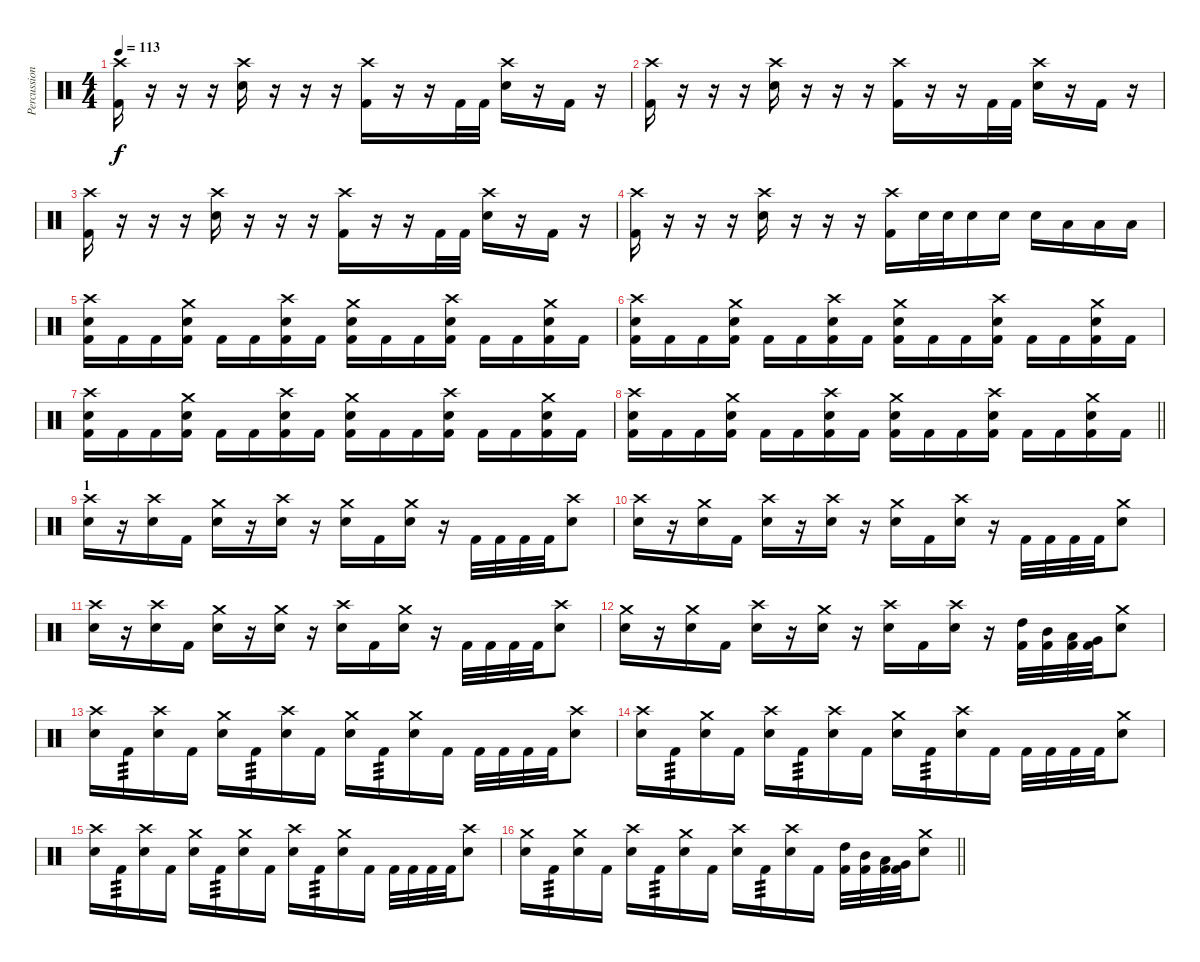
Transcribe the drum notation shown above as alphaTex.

\track ("Percussion" "Percussion") {instrument percussion}
\staff {score}
\articulation defaults
\ts (4 4)
\tempo 113
\clef neutral
\ks c
("Crash high (hit)" "Kick (hit) 2").16{dy f} r.16 r.16 r.16 ("Crash high (hit)" "Electric Snare (hit)").16 r.16 r.16 r.16 ("Crash high (hit)" "Kick (hit) 2").16 r.16 r.16 "Kick (hit) 2".32 "Kick (hit) 2".32 ("Crash high (hit)" "Electric Snare (hit)").16 r.16 "Kick (hit) 2".16 r.16 |
("Crash high (hit)" "Kick (hit) 2").16 r.16 r.16 r.16 ("Crash high (hit)" "Electric Snare (hit)").16 r.16 r.16 r.16 ("Crash high (hit)" "Kick (hit) 2").16 r.16 r.16 "Kick (hit) 2".32 "Kick (hit) 2".32 ("Crash high (hit)" "Electric Snare (hit)").16 r.16 "Kick (hit) 2".16 r.16 |
("Crash high (hit)" "Kick (hit) 2").16 r.16 r.16 r.16 ("Crash high (hit)" "Electric Snare (hit)").16 r.16 r.16 r.16 ("Crash high (hit)" "Kick (hit) 2").16 r.16 r.16 "Kick (hit) 2".32 "Kick (hit) 2".32 ("Crash high (hit)" "Electric Snare (hit)").16 r.16 "Kick (hit) 2".16 r.16 |
("Crash high (hit)" "Kick (hit) 2").16 r.16 r.16 r.16 ("Crash high (hit)" "Electric Snare (hit)").16 r.16 r.16 r.16 ("Crash high (hit)" "Kick (hit) 2").16 "Electric Snare (hit)".32 "Electric Snare (hit)".32 "Electric Snare (hit)".16 "Electric Snare (hit)".16 "Electric Snare (hit)".16 "Low Tom (hit)".16 "Low Tom (hit)".16 "Low Tom (hit)".16 |
("Crash high (hit)" "Electric Snare (hit)" "Kick (hit) 2").16 "Kick (hit) 2".16 "Kick (hit) 2".16 ("Crash medium (hit)" "Electric Snare (hit)" "Kick (hit) 2").16 "Kick (hit) 2".16 "Kick (hit) 2".16 ("Crash high (hit)" "Electric Snare (hit)" "Kick (hit) 2").16 "Kick (hit) 2".16 ("Crash medium (hit)" "Electric Snare (hit)" "Kick (hit) 2").16 "Kick (hit) 2".16 "Kick (hit) 2".16 ("Crash high (hit)" "Electric Snare (hit)" "Kick (hit) 2").16 "Kick (hit) 2".16 "Kick (hit) 2".16 ("Crash medium (hit)" "Electric Snare (hit)" "Kick (hit) 2").16 "Kick (hit) 2".16 |
("Crash high (hit)" "Electric Snare (hit)" "Kick (hit) 2").16 "Kick (hit) 2".16 "Kick (hit) 2".16 ("Crash medium (hit)" "Electric Snare (hit)" "Kick (hit) 2").16 "Kick (hit) 2".16 "Kick (hit) 2".16 ("Crash high (hit)" "Electric Snare (hit)" "Kick (hit) 2").16 "Kick (hit) 2".16 ("Crash medium (hit)" "Electric Snare (hit)" "Kick (hit) 2").16 "Kick (hit) 2".16 "Kick (hit) 2".16 ("Crash high (hit)" "Electric Snare (hit)" "Kick (hit) 2").16 "Kick (hit) 2".16 "Kick (hit) 2".16 ("Crash medium (hit)" "Electric Snare (hit)" "Kick (hit) 2").16 "Kick (hit) 2".16 |
("Crash high (hit)" "Electric Snare (hit)" "Kick (hit) 2").16 "Kick (hit) 2".16 "Kick (hit) 2".16 ("Crash medium (hit)" "Electric Snare (hit)" "Kick (hit) 2").16 "Kick (hit) 2".16 "Kick (hit) 2".16 ("Crash high (hit)" "Electric Snare (hit)" "Kick (hit) 2").16 "Kick (hit) 2".16 ("Crash medium (hit)" "Electric Snare (hit)" "Kick (hit) 2").16 "Kick (hit) 2".16 "Kick (hit) 2".16 ("Crash high (hit)" "Electric Snare (hit)" "Kick (hit) 2").16 "Kick (hit) 2".16 "Kick (hit) 2".16 ("Crash medium (hit)" "Electric Snare (hit)" "Kick (hit) 2").16 "Kick (hit) 2".16 |
\barLineRight lightlight
("Crash high (hit)" "Electric Snare (hit)" "Kick (hit) 2").16 "Kick (hit) 2".16 "Kick (hit) 2".16 ("Crash medium (hit)" "Electric Snare (hit)" "Kick (hit) 2").16 "Kick (hit) 2".16 "Kick (hit) 2".16 ("Crash high (hit)" "Electric Snare (hit)" "Kick (hit) 2").16 "Kick (hit) 2".16 ("Crash medium (hit)" "Electric Snare (hit)" "Kick (hit) 2").16 "Kick (hit) 2".16 "Kick (hit) 2".16 ("Crash high (hit)" "Electric Snare (hit)" "Kick (hit) 2").16 "Kick (hit) 2".16 "Kick (hit) 2".16 ("Crash medium (hit)" "Electric Snare (hit)" "Kick (hit) 2").16 "Kick (hit) 2".16 |
\section ("" "1")
("Crash high (hit)" "Electric Snare (hit)").16 r.16 ("Crash high (hit)" "Electric Snare (hit)").16 "Kick (hit) 2".16 ("Crash medium (hit)" "Electric Snare (hit)").16 r.16 ("Crash high (hit)" "Electric Snare (hit)").16 r.16 ("Crash medium (hit)" "Electric Snare (hit)").16 "Kick (hit) 2".16 ("Crash medium (hit)" "Electric Snare (hit)").16 r.16 "Kick (hit) 2".32 "Kick (hit) 2".32 "Kick (hit) 2".32 "Kick (hit) 2".32 ("Crash high (hit)" "Electric Snare (hit)").8 |
("Crash high (hit)" "Electric Snare (hit)").16 r.16 ("Crash medium (hit)" "Electric Snare (hit)").16 "Kick (hit) 2".16 ("Crash high (hit)" "Electric Snare (hit)").16 r.16 ("Crash high (hit)" "Electric Snare (hit)").16 r.16 ("Crash medium (hit)" "Electric Snare (hit)").16 "Kick (hit) 2".16 ("Crash high (hit)" "Electric Snare (hit)").16 r.16 "Kick (hit) 2".32 "Kick (hit) 2".32 "Kick (hit) 2".32 "Kick (hit) 2".32 ("Crash medium (hit)" "Electric Snare (hit)").8 |
("Crash high (hit)" "Electric Snare (hit)").16 r.16 ("Crash high (hit)" "Electric Snare (hit)").16 "Kick (hit) 2".16 ("Crash medium (hit)" "Electric Snare (hit)").16 r.16 ("Crash medium (hit)" "Electric Snare (hit)").16 r.16 ("Crash high (hit)" "Electric Snare (hit)").16 "Kick (hit) 2".16 ("Crash medium (hit)" "Electric Snare (hit)").16 r.16 "Kick (hit) 2".32 "Kick (hit) 2".32 "Kick (hit) 2".32 "Kick (hit) 2".32 ("Crash high (hit)" "Electric Snare (hit)").8 |
("Crash medium (hit)" "Electric Snare (hit)").16 r.16 ("Crash medium (hit)" "Electric Snare (hit)").16 "Kick (hit) 2".16 ("Crash high (hit)" "Electric Snare (hit)").16 r.16 ("Crash medium (hit)" "Electric Snare (hit)").16 r.16 ("Crash high (hit)" "Electric Snare (hit)").16 "Kick (hit) 2".16 ("Crash high (hit)" "Electric Snare (hit)").16 r.16 ("High Tom (hit)" "Kick (hit) 2").32 ("Mid Tom (hit)" "Kick (hit) 2").32 ("Low Tom (hit)" "Kick (hit) 2").32 ("Very Low Tom (hit)" "Kick (hit) 2").32 ("Crash medium (hit)" "Electric Snare (hit)").8 |
("Crash high (hit)" "Electric Snare (hit)").16 "Kick (hit) 2".16{tp 3} ("Crash high (hit)" "Electric Snare (hit)").16 "Kick (hit) 2".16 ("Crash medium (hit)" "Electric Snare (hit)").16 "Kick (hit) 2".16{tp 3} ("Crash high (hit)" "Electric Snare (hit)").16 "Kick (hit) 2".16 ("Crash medium (hit)" "Electric Snare (hit)").16 "Kick (hit) 2".16{tp 3} ("Crash medium (hit)" "Electric Snare (hit)").16 "Kick (hit) 2".16 "Kick (hit) 2".32 "Kick (hit) 2".32 "Kick (hit) 2".32 "Kick (hit) 2".32 ("Crash high (hit)" "Electric Snare (hit)").8 |
("Crash high (hit)" "Electric Snare (hit)").16 "Kick (hit) 2".16{tp 3} ("Crash medium (hit)" "Electric Snare (hit)").16 "Kick (hit) 2".16 ("Crash high (hit)" "Electric Snare (hit)").16 "Kick (hit) 2".16{tp 3} ("Crash high (hit)" "Electric Snare (hit)").16 "Kick (hit) 2".16 ("Crash medium (hit)" "Electric Snare (hit)").16 "Kick (hit) 2".16{tp 3} ("Crash high (hit)" "Electric Snare (hit)").16 "Kick (hit) 2".16 "Kick (hit) 2".32 "Kick (hit) 2".32 "Kick (hit) 2".32 "Kick (hit) 2".32 ("Crash medium (hit)" "Electric Snare (hit)").8 |
("Crash high (hit)" "Electric Snare (hit)").16 "Kick (hit) 2".16{tp 3} ("Crash high (hit)" "Electric Snare (hit)").16 "Kick (hit) 2".16 ("Crash medium (hit)" "Electric Snare (hit)").16 "Kick (hit) 2".16{tp 3} ("Crash medium (hit)" "Electric Snare (hit)").16 "Kick (hit) 2".16 ("Crash high (hit)" "Electric Snare (hit)").16 "Kick (hit) 2".16{tp 3} ("Crash medium (hit)" "Electric Snare (hit)").16 "Kick (hit) 2".16 "Kick (hit) 2".32 "Kick (hit) 2".32 "Kick (hit) 2".32 "Kick (hit) 2".32 ("Crash high (hit)" "Electric Snare (hit)").8 |
\barLineRight lightlight
("Crash medium (hit)" "Electric Snare (hit)").16 "Kick (hit) 2".16{tp 3} ("Crash medium (hit)" "Electric Snare (hit)").16 "Kick (hit) 2".16 ("Crash high (hit)" "Electric Snare (hit)").16 "Kick (hit) 2".16{tp 3} ("Crash medium (hit)" "Electric Snare (hit)").16 "Kick (hit) 2".16 ("Crash high (hit)" "Electric Snare (hit)").16 "Kick (hit) 2".16{tp 3} ("Crash high (hit)" "Electric Snare (hit)").16 "Kick (hit) 2".16 ("High Tom (hit)" "Kick (hit) 2").32 ("Mid Tom (hit)" "Kick (hit) 2").32 ("Low Tom (hit)" "Kick (hit) 2").32 ("Very Low Tom (hit)" "Kick (hit) 2").32 ("Crash medium (hit)" "Electric Snare (hit)").8
